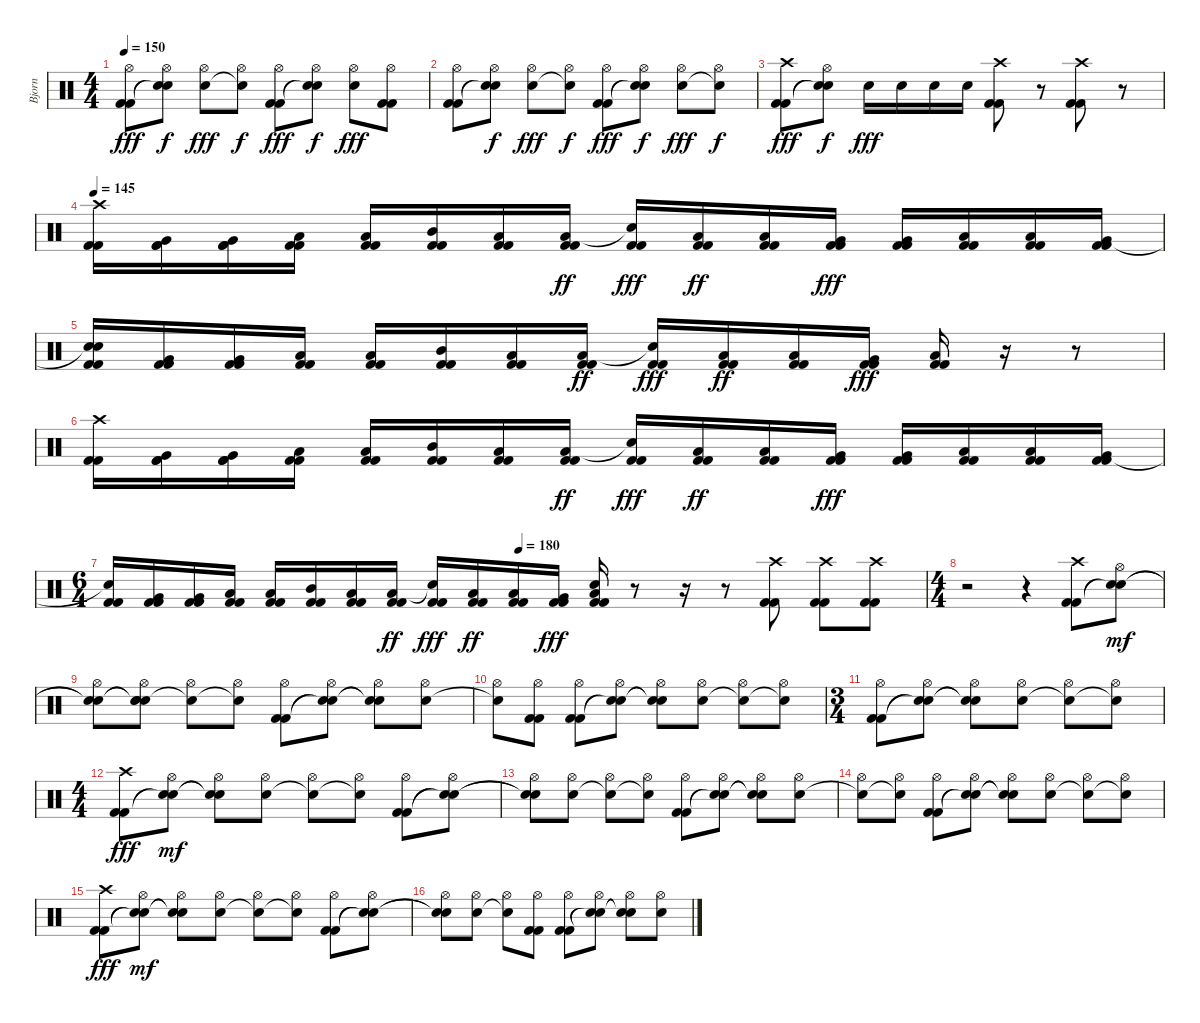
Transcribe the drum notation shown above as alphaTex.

\track ("Bjorn" "Bjorn") {instrument percussion}
\staff {score}
\articulation defaults
\ts (4 4)
\tempo 150
\clef neutral
\ks c
("Kick (hit) 2" "Kick (hit) 2" "Hi-Hat (open)").8{dy fff} ("Snare (hit)"{t} "Snare (hit)"{t} "Hi-Hat (open)").8{dy f} ("Snare (hit) 2" "Hi-Hat (open)").8{dy fff} ("Snare (hit)"{t} "Hi-Hat (open)").8{dy f} ("Kick (hit) 2" "Kick (hit) 2" "Hi-Hat (open)").8{dy fff} ("Snare (hit)"{t} "Snare (hit)"{t} "Hi-Hat (open)").8{dy f} ("Snare (hit) 2" "Hi-Hat (open)").8{dy fff} ("Kick (hit) 2" "Kick (hit) 2" "Hi-Hat (open)").8 |
("Kick (hit) 2" "Kick (hit) 2" "Hi-Hat (open)").8 ("Snare (hit)"{t} "Snare (hit)"{t} "Hi-Hat (open)").8{dy f} ("Snare (hit) 2" "Hi-Hat (open)").8{dy fff} ("Snare (hit)"{t} "Hi-Hat (open)").8{dy f} ("Kick (hit) 2" "Kick (hit) 2" "Hi-Hat (open)").8{dy fff} ("Snare (hit)"{t} "Snare (hit)"{t} "Hi-Hat (open)").8{dy f} ("Snare (hit) 2" "Hi-Hat (open)").8{dy fff} ("Snare (hit)"{t} "Hi-Hat (open)").8{dy f} |
("Kick (hit) 2" "Kick (hit) 2" "Crash high (hit)").8{dy fff} ("Snare (hit)"{t} "Snare (hit)"{t} "Hi-Hat (open)").8{dy f} "Snare (hit) 2".16{dy fff} "Snare (hit) 2".16 "Snare (hit) 2".16 "Snare (hit) 2".16 ("Kick (hit) 2" "Kick (hit) 2" "Crash high (hit)").8 r.8 ("Kick (hit) 2" "Kick (hit) 2" "Crash high (hit)").8 r.8 |
\tempo 145
("Kick (hit) 2" "Kick (hit) 2" "Crash high (hit)").16 ("Kick (hit) 2" "Kick (hit) 2" "Very Low Tom (hit)").16 ("Kick (hit) 2" "Kick (hit) 2" "Very Low Tom (hit)").16 ("Kick (hit) 2" "Kick (hit) 2" "Low Floor Tom (hit)").16 ("Kick (hit) 2" "Kick (hit) 2" "Low Floor Tom (hit)").16 ("Kick (hit) 2" "Kick (hit) 2" "Mid Tom (hit)").16 ("Kick (hit) 2" "Kick (hit) 2" "Low Tom (hit)").16 ("Kick (hit) 2" "Kick (hit) 2" "Low Floor Tom (hit)").16{dy ff} ("Kick (hit) 2" "Kick (hit) 2" "Snare (hit)"{t}).16{dy fff} ("Kick (hit) 2" "Kick (hit) 2" "Low Tom (hit)").16{dy ff} ("Kick (hit) 2" "Kick (hit) 2" "Low Tom (hit)").16 ("Kick (hit) 2" "Kick (hit) 2" "Very Low Tom (hit)").16{dy fff} ("Kick (hit) 2" "Kick (hit) 2" "Very Low Tom (hit)").16 ("Kick (hit) 2" "Kick (hit) 2" "Low Tom (hit)").16 ("Kick (hit) 2" "Kick (hit) 2" "Low Tom (hit)").16 ("Kick (hit) 2" "Kick (hit) 2" "Very Low Tom (hit)").16 |
("Kick (hit) 2" "Kick (hit) 2" "Snare (hit)"{t} "Snare (hit)").16 ("Kick (hit) 2" "Kick (hit) 2" "Very Low Tom (hit)").16 ("Kick (hit) 2" "Kick (hit) 2" "Very Low Tom (hit)").16 ("Kick (hit) 2" "Kick (hit) 2" "Low Floor Tom (hit)").16 ("Kick (hit) 2" "Kick (hit) 2" "Low Floor Tom (hit)").16 ("Kick (hit) 2" "Kick (hit) 2" "Mid Tom (hit)").16 ("Kick (hit) 2" "Kick (hit) 2" "Low Tom (hit)").16 ("Kick (hit) 2" "Kick (hit) 2" "Low Floor Tom (hit)").16{dy ff} ("Kick (hit) 2" "Kick (hit) 2" "Snare (hit)"{t}).16{dy fff} ("Kick (hit) 2" "Kick (hit) 2" "Low Tom (hit)").16{dy ff} ("Kick (hit) 2" "Kick (hit) 2" "Low Tom (hit)").16 ("Kick (hit) 2" "Kick (hit) 2" "Very Low Tom (hit)").16{dy fff} ("Kick (hit) 2" "Kick (hit) 2" "Low Floor Tom (hit)").16 r.16 r.8 |
("Kick (hit) 2" "Kick (hit) 2" "Crash high (hit)").16 ("Kick (hit) 2" "Kick (hit) 2" "Very Low Tom (hit)").16 ("Kick (hit) 2" "Kick (hit) 2" "Very Low Tom (hit)").16 ("Kick (hit) 2" "Kick (hit) 2" "Low Floor Tom (hit)").16 ("Kick (hit) 2" "Kick (hit) 2" "Low Floor Tom (hit)").16 ("Kick (hit) 2" "Kick (hit) 2" "Mid Tom (hit)").16 ("Kick (hit) 2" "Kick (hit) 2" "Low Tom (hit)").16 ("Kick (hit) 2" "Kick (hit) 2" "Low Floor Tom (hit)").16{dy ff} ("Kick (hit) 2" "Kick (hit) 2" "Snare (hit)"{t}).16{dy fff} ("Kick (hit) 2" "Kick (hit) 2" "Low Tom (hit)").16{dy ff} ("Kick (hit) 2" "Kick (hit) 2" "Low Tom (hit)").16 ("Kick (hit) 2" "Kick (hit) 2" "Very Low Tom (hit)").16{dy fff} ("Kick (hit) 2" "Kick (hit) 2" "Very Low Tom (hit)").16 ("Kick (hit) 2" "Kick (hit) 2" "Low Tom (hit)").16 ("Kick (hit) 2" "Kick (hit) 2" "Low Tom (hit)").16 ("Kick (hit) 2" "Kick (hit) 2" "Very Low Tom (hit)").16 |
\ts (6 4)
\tempo (180 0.5)
("Kick (hit) 2" "Kick (hit) 2" "Snare (hit)"{t}).16 ("Kick (hit) 2" "Kick (hit) 2" "Very Low Tom (hit)").16 ("Kick (hit) 2" "Kick (hit) 2" "Very Low Tom (hit)").16 ("Kick (hit) 2" "Kick (hit) 2" "Low Floor Tom (hit)").16 ("Kick (hit) 2" "Kick (hit) 2" "Low Floor Tom (hit)").16 ("Kick (hit) 2" "Kick (hit) 2" "Mid Tom (hit)").16 ("Kick (hit) 2" "Kick (hit) 2" "Low Tom (hit)").16 ("Kick (hit) 2" "Kick (hit) 2" "Low Floor Tom (hit)").16{dy ff} ("Kick (hit) 2" "Kick (hit) 2" "Snare (hit)"{t}).16{dy fff} ("Kick (hit) 2" "Kick (hit) 2" "Low Tom (hit)").16{dy ff} ("Kick (hit) 2" "Kick (hit) 2" "Low Tom (hit)").16 ("Kick (hit) 2" "Kick (hit) 2" "Very Low Tom (hit)").16{dy fff} ("Kick (hit) 2" "Kick (hit) 2" "Snare (hit) 2" "Low Floor Tom (hit)").16 r.8 r.16 r.8 ("Kick (hit) 2" "Kick (hit) 2" "Crash high (hit)").8 ("Kick (hit) 2" "Kick (hit) 2" "Crash high (hit)").8 ("Kick (hit) 2" "Kick (hit) 2" "Crash high (hit)").8 |
\ts (4 4)
r.2 r.4 ("Kick (hit) 2" "Kick (hit) 2" "Crash high (hit)").8 ("Snare (hit)"{t} "Snare (hit)"{t} "Hi-Hat (open)").8{dy mf} |
("Snare (hit)"{t} "Snare (hit)"{t} "Hi-Hat (open)").8 ("Snare (hit)"{t} "Snare (hit)"{t} "Snare (hit) 2" "Hi-Hat (open)").8 ("Snare (hit)"{t} "Hi-Hat (open)").8 ("Snare (hit)"{t} "Hi-Hat (open)").8 ("Kick (hit) 2" "Kick (hit) 2" "Hi-Hat (open)").8 ("Snare (hit)"{t} "Snare (hit)"{t} "Hi-Hat (open)").8 ("Snare (hit)"{t} "Snare (hit)"{t} "Hi-Hat (open)").8 ("Snare (hit) 2" "Hi-Hat (open)").8 |
("Snare (hit)"{t} "Hi-Hat (open)").8 ("Kick (hit) 2" "Kick (hit) 2" "Hi-Hat (open)").8 ("Kick (hit) 2" "Kick (hit) 2" "Hi-Hat (open)").8 ("Snare (hit)"{t} "Snare (hit)"{t} "Hi-Hat (open)").8 ("Snare (hit)"{t} "Snare (hit)"{t} "Hi-Hat (open)").8 ("Snare (hit) 2" "Hi-Hat (open)").8 ("Snare (hit)"{t} "Hi-Hat (open)").8 ("Snare (hit)"{t} "Hi-Hat (open)").8 |
\ts (3 4)
("Kick (hit) 2" "Kick (hit) 2" "Hi-Hat (open)").8 ("Snare (hit)"{t} "Snare (hit)"{t} "Hi-Hat (open)").8 ("Snare (hit)"{t} "Snare (hit)"{t} "Hi-Hat (open)").8 ("Snare (hit) 2" "Hi-Hat (open)").8 ("Snare (hit)"{t} "Hi-Hat (open)").8 ("Snare (hit)"{t} "Hi-Hat (open)").8 |
\ts (4 4)
("Kick (hit) 2" "Kick (hit) 2" "Crash high (hit)").8{dy fff} ("Snare (hit)"{t} "Snare (hit)"{t} "Hi-Hat (open)").8{dy mf} ("Snare (hit)"{t} "Snare (hit)"{t} "Hi-Hat (open)").8 ("Snare (hit) 2" "Hi-Hat (open)").8 ("Snare (hit)"{t} "Hi-Hat (open)").8 ("Snare (hit)"{t} "Hi-Hat (open)").8 ("Kick (hit) 2" "Kick (hit) 2" "Hi-Hat (open)").8 ("Snare (hit)"{t} "Snare (hit)"{t} "Hi-Hat (open)").8 |
("Snare (hit)"{t} "Snare (hit)"{t} "Hi-Hat (open)").8 ("Snare (hit) 2" "Hi-Hat (open)").8 ("Snare (hit)"{t} "Hi-Hat (open)").8 ("Snare (hit)"{t} "Hi-Hat (open)").8 ("Kick (hit) 2" "Kick (hit) 2" "Hi-Hat (open)").8 ("Snare (hit)"{t} "Snare (hit)"{t} "Hi-Hat (open)").8 ("Snare (hit)"{t} "Snare (hit)"{t} "Hi-Hat (open)").8 ("Snare (hit) 2" "Hi-Hat (open)").8 |
("Snare (hit)"{t} "Hi-Hat (open)").8 ("Snare (hit)"{t} "Hi-Hat (open)").8 ("Kick (hit) 2" "Kick (hit) 2" "Hi-Hat (open)").8 ("Snare (hit)"{t} "Snare (hit)"{t} "Hi-Hat (open)").8 ("Snare (hit)"{t} "Snare (hit)"{t} "Hi-Hat (open)").8 ("Snare (hit) 2" "Hi-Hat (open)").8 ("Snare (hit)"{t} "Hi-Hat (open)").8 ("Snare (hit)"{t} "Hi-Hat (open)").8 |
("Kick (hit) 2" "Kick (hit) 2" "Crash high (hit)").8{dy fff} ("Snare (hit)"{t} "Snare (hit)"{t} "Hi-Hat (open)").8{dy mf} ("Snare (hit)"{t} "Snare (hit)"{t} "Hi-Hat (open)").8 ("Snare (hit) 2" "Hi-Hat (open)").8 ("Snare (hit)"{t} "Hi-Hat (open)").8 ("Snare (hit)"{t} "Hi-Hat (open)").8 ("Kick (hit) 2" "Kick (hit) 2" "Hi-Hat (open)").8 ("Snare (hit)"{t} "Snare (hit)"{t} "Hi-Hat (open)").8 |
("Snare (hit)"{t} "Snare (hit)"{t} "Hi-Hat (open)").8 ("Snare (hit) 2" "Hi-Hat (open)").8 ("Snare (hit)"{t} "Hi-Hat (open)").8 ("Kick (hit) 2" "Kick (hit) 2" "Hi-Hat (open)").8 ("Kick (hit) 2" "Kick (hit) 2" "Hi-Hat (open)").8 ("Snare (hit)"{t} "Snare (hit)"{t} "Hi-Hat (open)").8 ("Snare (hit)"{t} "Snare (hit)"{t} "Hi-Hat (open)").8 ("Snare (hit) 2" "Hi-Hat (open)").8
